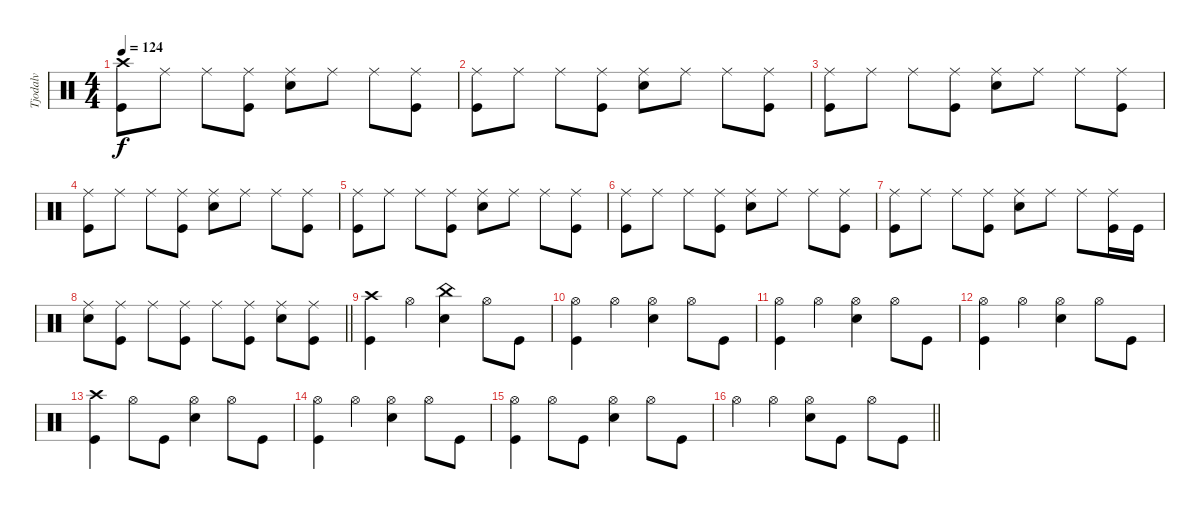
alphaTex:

\track ("Tjodalv" "Tjodalv") {instrument percussion}
\staff {score}
\articulation defaults
\ts (4 4)
\tempo 124
\clef neutral
\ks c
("Crash high (hit)" "Kick (hit)").8{dy f} "Ride (middle)".8 "Ride (middle)".8 ("Kick (hit)" "Ride (middle)").8 ("Ride (middle)" "Snare (hit) 2").8 "Ride (middle)".8 "Ride (middle)".8 ("Kick (hit)" "Ride (middle)").8 |
("Kick (hit)" "Ride (middle)").8 "Ride (middle)".8 "Ride (middle)".8 ("Kick (hit)" "Ride (middle)").8 ("Ride (middle)" "Snare (hit) 2").8 "Ride (middle)".8 "Ride (middle)".8 ("Kick (hit)" "Ride (middle)").8 |
("Kick (hit)" "Ride (middle)").8 "Ride (middle)".8 "Ride (middle)".8 ("Kick (hit)" "Ride (middle)").8 ("Ride (middle)" "Snare (hit) 2").8 "Ride (middle)".8 "Ride (middle)".8 ("Kick (hit)" "Ride (middle)").8 |
("Kick (hit)" "Ride (middle)").8 "Ride (middle)".8 "Ride (middle)".8 ("Kick (hit)" "Ride (middle)").8 ("Ride (middle)" "Snare (hit) 2").8 "Ride (middle)".8 "Ride (middle)".8 ("Kick (hit)" "Ride (middle)").8 |
("Kick (hit)" "Ride (middle)").8 "Ride (middle)".8 "Ride (middle)".8 ("Kick (hit)" "Ride (middle)").8 ("Ride (middle)" "Snare (hit) 2").8 "Ride (middle)".8 "Ride (middle)".8 ("Kick (hit)" "Ride (middle)").8 |
("Kick (hit)" "Ride (middle)").8 "Ride (middle)".8 "Ride (middle)".8 ("Kick (hit)" "Ride (middle)").8 ("Ride (middle)" "Snare (hit) 2").8 "Ride (middle)".8 "Ride (middle)".8 ("Kick (hit)" "Ride (middle)").8 |
("Kick (hit)" "Ride (middle)").8 "Ride (middle)".8 "Ride (middle)".8 ("Kick (hit)" "Ride (middle)").8 ("Ride (middle)" "Snare (hit) 2").8 "Ride (middle)".8 "Ride (middle)".8 ("Kick (hit)" "Ride (middle)").16 "Kick (hit)".16 |
\barLineRight lightlight
("Ride (middle)" "Snare (hit) 2").8 ("Kick (hit)" "Ride (middle)").8 "Ride (middle)".8 ("Kick (hit)" "Ride (middle)").8 "Ride (middle)".8 ("Kick (hit)" "Ride (middle)").8 ("Ride (middle)" "Snare (hit) 2").8 ("Kick (hit)" "Ride (middle)").8 |
("Crash high (hit)" "Kick (hit)").4 "Hi-Hat (open)".4 ("China (hit)" "Snare (hit) 2").4 "Hi-Hat (open)".8 "Kick (hit)".8 |
("Kick (hit)" "Hi-Hat (open)").4 "Hi-Hat (open)".4 ("Hi-Hat (open)" "Snare (hit) 2").4 "Hi-Hat (open)".8 "Kick (hit)".8 |
("Kick (hit)" "Hi-Hat (open)").4 "Hi-Hat (open)".4 ("Hi-Hat (open)" "Snare (hit) 2").4 "Hi-Hat (open)".8 "Kick (hit)".8 |
("Kick (hit)" "Hi-Hat (open)").4 "Hi-Hat (open)".4 ("Hi-Hat (open)" "Snare (hit) 2").4 "Hi-Hat (open)".8 "Kick (hit)".8 |
("Crash high (hit)" "Kick (hit)").4 "Hi-Hat (open)".8 "Kick (hit)".8 ("Hi-Hat (open)" "Snare (hit) 2").4 "Hi-Hat (open)".8 "Kick (hit)".8 |
("Kick (hit)" "Hi-Hat (open)").4 "Hi-Hat (open)".4 ("Hi-Hat (open)" "Snare (hit) 2").4 "Hi-Hat (open)".8 "Kick (hit)".8 |
("Kick (hit)" "Hi-Hat (open)").4 "Hi-Hat (open)".8 "Kick (hit)".8 ("Hi-Hat (open)" "Snare (hit) 2").4 "Hi-Hat (open)".8 "Kick (hit)".8 |
\barLineRight lightlight "Hi-Hat (open)".4 "Hi-Hat (open)".4
("Hi-Hat (open)" "Snare (hit) 2").8 "Kick (hit)".8 "Hi-Hat (open)".8 "Kick (hit)".8
